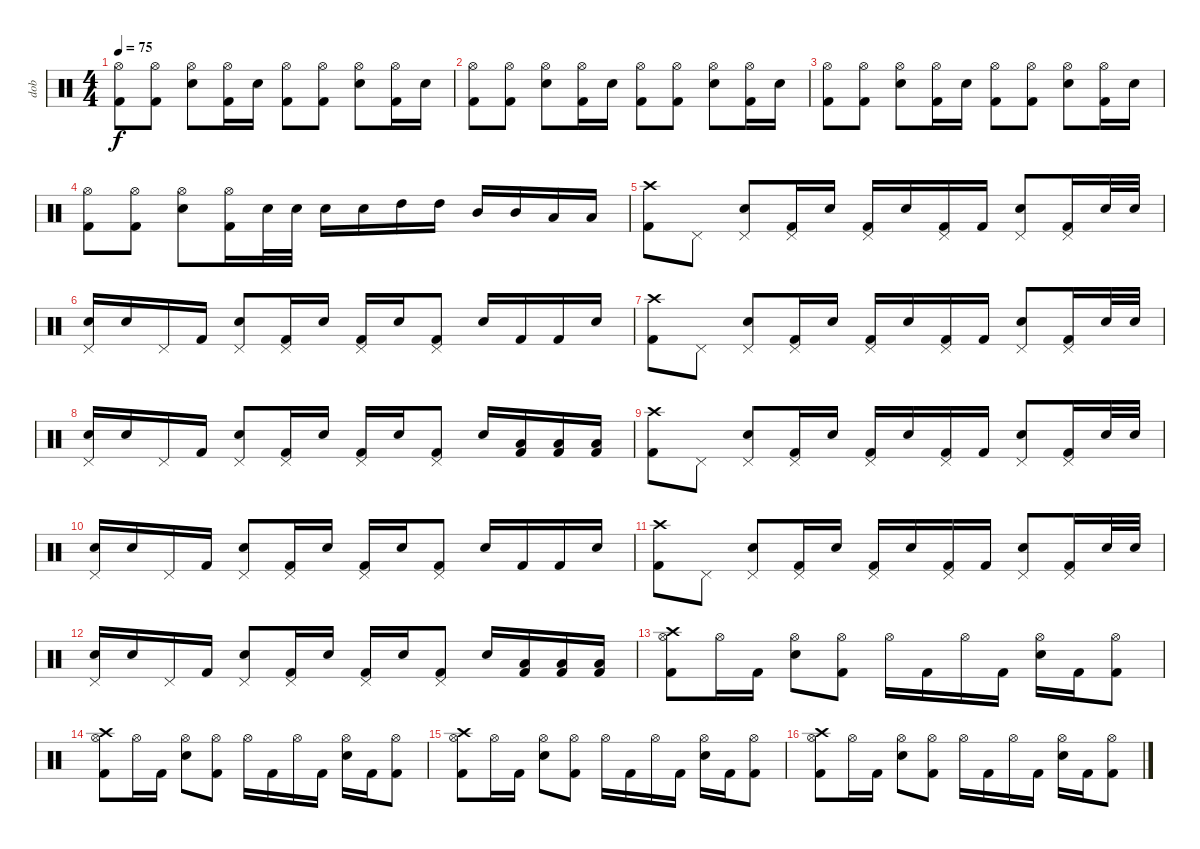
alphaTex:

\track ("dob" "dob") {instrument percussion}
\staff {score}
\articulation defaults
\ts (4 4)
\tempo 75
\clef neutral
\ks c
("Kick (hit) 2" "Hi-Hat (open)").8{dy f} ("Kick (hit) 2" "Hi-Hat (open)").8 ("Snare (hit) 2" "Hi-Hat (open)").8 ("Kick (hit) 2" "Hi-Hat (open)").16 "Snare (hit) 2".16 ("Kick (hit) 2" "Hi-Hat (open)").8 ("Kick (hit) 2" "Hi-Hat (open)").8 ("Snare (hit) 2" "Hi-Hat (open)").8 ("Kick (hit) 2" "Hi-Hat (open)").16 "Snare (hit) 2".16 |
("Kick (hit) 2" "Hi-Hat (open)").8 ("Kick (hit) 2" "Hi-Hat (open)").8 ("Snare (hit) 2" "Hi-Hat (open)").8 ("Kick (hit) 2" "Hi-Hat (open)").16 "Snare (hit) 2".16 ("Kick (hit) 2" "Hi-Hat (open)").8 ("Kick (hit) 2" "Hi-Hat (open)").8 ("Snare (hit) 2" "Hi-Hat (open)").8 ("Kick (hit) 2" "Hi-Hat (open)").16 "Snare (hit) 2".16 |
("Kick (hit) 2" "Hi-Hat (open)").8 ("Kick (hit) 2" "Hi-Hat (open)").8 ("Snare (hit) 2" "Hi-Hat (open)").8 ("Kick (hit) 2" "Hi-Hat (open)").16 "Snare (hit) 2".16 ("Kick (hit) 2" "Hi-Hat (open)").8 ("Kick (hit) 2" "Hi-Hat (open)").8 ("Snare (hit) 2" "Hi-Hat (open)").8 ("Kick (hit) 2" "Hi-Hat (open)").16 "Snare (hit) 2".16 |
("Kick (hit) 2" "Hi-Hat (open)").8 ("Kick (hit) 2" "Hi-Hat (open)").8 ("Snare (hit) 2" "Hi-Hat (open)").8 ("Kick (hit) 2" "Hi-Hat (open)").16 "Snare (hit) 2".32 "Snare (hit) 2".32 "Snare (hit) 2".16 "Snare (hit) 2".16 "High Tom (hit)".16 "High Tom (hit)".16 "Mid Tom (hit)".16 "Mid Tom (hit)".16 "Low Tom (hit)".16 "Low Tom (hit)".16 |
("Kick (hit) 2" "Crash high (hit)").8 "Pedal Hi-Hat (hit)".8 ("Snare (hit) 2" "Pedal Hi-Hat (hit)").8 ("Kick (hit) 2" "Pedal Hi-Hat (hit)").16 "Snare (hit) 2".16 ("Kick (hit) 2" "Pedal Hi-Hat (hit)").16 "Snare (hit) 2".16 ("Kick (hit) 2" "Pedal Hi-Hat (hit)").16 "Kick (hit) 2".16 ("Snare (hit) 2" "Pedal Hi-Hat (hit)").8 ("Kick (hit) 2" "Pedal Hi-Hat (hit)").16 "Snare (hit) 2".32 "Snare (hit) 2".32 |
("Snare (hit) 2" "Pedal Hi-Hat (hit)").16 "Snare (hit) 2".16 "Pedal Hi-Hat (hit)".16 "Kick (hit) 2".16 ("Snare (hit) 2" "Pedal Hi-Hat (hit)").8 ("Kick (hit) 2" "Pedal Hi-Hat (hit)").16 "Snare (hit) 2".16 ("Kick (hit) 2" "Pedal Hi-Hat (hit)").16 "Snare (hit) 2".16 ("Kick (hit) 2" "Pedal Hi-Hat (hit)").8 "Snare (hit) 2".16 "Kick (hit) 2".16 "Kick (hit) 2".16 "Snare (hit) 2".16 |
("Kick (hit) 2" "Crash high (hit)").8 "Pedal Hi-Hat (hit)".8 ("Snare (hit) 2" "Pedal Hi-Hat (hit)").8 ("Kick (hit) 2" "Pedal Hi-Hat (hit)").16 "Snare (hit) 2".16 ("Kick (hit) 2" "Pedal Hi-Hat (hit)").16 "Snare (hit) 2".16 ("Kick (hit) 2" "Pedal Hi-Hat (hit)").16 "Kick (hit) 2".16 ("Snare (hit) 2" "Pedal Hi-Hat (hit)").8 ("Kick (hit) 2" "Pedal Hi-Hat (hit)").16 "Snare (hit) 2".32 "Snare (hit) 2".32 |
("Snare (hit) 2" "Pedal Hi-Hat (hit)").16 "Snare (hit) 2".16 "Pedal Hi-Hat (hit)".16 "Kick (hit) 2".16 ("Snare (hit) 2" "Pedal Hi-Hat (hit)").8 ("Kick (hit) 2" "Pedal Hi-Hat (hit)").16 "Snare (hit) 2".16 ("Kick (hit) 2" "Pedal Hi-Hat (hit)").16 "Snare (hit) 2".16 ("Kick (hit) 2" "Pedal Hi-Hat (hit)").8 "Snare (hit) 2".16 ("Kick (hit) 2" "Low Tom (hit)").16 ("Kick (hit) 2" "Low Tom (hit)").16 ("Kick (hit) 2" "Low Tom (hit)").16 |
("Kick (hit) 2" "Crash high (hit)").8 "Pedal Hi-Hat (hit)".8 ("Snare (hit) 2" "Pedal Hi-Hat (hit)").8 ("Kick (hit) 2" "Pedal Hi-Hat (hit)").16 "Snare (hit) 2".16 ("Kick (hit) 2" "Pedal Hi-Hat (hit)").16 "Snare (hit) 2".16 ("Kick (hit) 2" "Pedal Hi-Hat (hit)").16 "Kick (hit) 2".16 ("Snare (hit) 2" "Pedal Hi-Hat (hit)").8 ("Kick (hit) 2" "Pedal Hi-Hat (hit)").16 "Snare (hit) 2".32 "Snare (hit) 2".32 |
("Snare (hit) 2" "Pedal Hi-Hat (hit)").16 "Snare (hit) 2".16 "Pedal Hi-Hat (hit)".16 "Kick (hit) 2".16 ("Snare (hit) 2" "Pedal Hi-Hat (hit)").8 ("Kick (hit) 2" "Pedal Hi-Hat (hit)").16 "Snare (hit) 2".16 ("Kick (hit) 2" "Pedal Hi-Hat (hit)").16 "Snare (hit) 2".16 ("Kick (hit) 2" "Pedal Hi-Hat (hit)").8 "Snare (hit) 2".16 "Kick (hit) 2".16 "Kick (hit) 2".16 "Snare (hit) 2".16 |
("Kick (hit) 2" "Crash high (hit)").8 "Pedal Hi-Hat (hit)".8 ("Snare (hit) 2" "Pedal Hi-Hat (hit)").8 ("Kick (hit) 2" "Pedal Hi-Hat (hit)").16 "Snare (hit) 2".16 ("Kick (hit) 2" "Pedal Hi-Hat (hit)").16 "Snare (hit) 2".16 ("Kick (hit) 2" "Pedal Hi-Hat (hit)").16 "Kick (hit) 2".16 ("Snare (hit) 2" "Pedal Hi-Hat (hit)").8 ("Kick (hit) 2" "Pedal Hi-Hat (hit)").16 "Snare (hit) 2".32 "Snare (hit) 2".32 |
("Snare (hit) 2" "Pedal Hi-Hat (hit)").16 "Snare (hit) 2".16 "Pedal Hi-Hat (hit)".16 "Kick (hit) 2".16 ("Snare (hit) 2" "Pedal Hi-Hat (hit)").8 ("Kick (hit) 2" "Pedal Hi-Hat (hit)").16 "Snare (hit) 2".16 ("Kick (hit) 2" "Pedal Hi-Hat (hit)").16 "Snare (hit) 2".16 ("Kick (hit) 2" "Pedal Hi-Hat (hit)").8 "Snare (hit) 2".16 ("Kick (hit) 2" "Low Tom (hit)").16 ("Kick (hit) 2" "Low Tom (hit)").16 ("Kick (hit) 2" "Low Tom (hit)").16 |
("Kick (hit) 2" "Hi-Hat (open)" "Crash high (hit)").8 "Hi-Hat (open)".16 "Kick (hit) 2".16 ("Snare (hit) 2" "Hi-Hat (open)").8 ("Kick (hit) 2" "Hi-Hat (open)").8 "Hi-Hat (open)".16 "Kick (hit) 2".16 "Hi-Hat (open)".16 "Kick (hit) 2".16 ("Snare (hit) 2" "Hi-Hat (open)").16 "Kick (hit) 2".16 ("Kick (hit) 2" "Hi-Hat (open)").8 |
("Kick (hit) 2" "Hi-Hat (open)" "Crash high (hit)").8 "Hi-Hat (open)".16 "Kick (hit) 2".16 ("Snare (hit) 2" "Hi-Hat (open)").8 ("Kick (hit) 2" "Hi-Hat (open)").8 "Hi-Hat (open)".16 "Kick (hit) 2".16 "Hi-Hat (open)".16 "Kick (hit) 2".16 ("Snare (hit) 2" "Hi-Hat (open)").16 "Kick (hit) 2".16 ("Kick (hit) 2" "Hi-Hat (open)").8 |
("Kick (hit) 2" "Hi-Hat (open)" "Crash high (hit)").8 "Hi-Hat (open)".16 "Kick (hit) 2".16 ("Snare (hit) 2" "Hi-Hat (open)").8 ("Kick (hit) 2" "Hi-Hat (open)").8 "Hi-Hat (open)".16 "Kick (hit) 2".16 "Hi-Hat (open)".16 "Kick (hit) 2".16 ("Snare (hit) 2" "Hi-Hat (open)").16 "Kick (hit) 2".16 ("Kick (hit) 2" "Hi-Hat (open)").8 |
("Kick (hit) 2" "Hi-Hat (open)" "Crash high (hit)").8 "Hi-Hat (open)".16 "Kick (hit) 2".16 ("Snare (hit) 2" "Hi-Hat (open)").8 ("Kick (hit) 2" "Hi-Hat (open)").8 "Hi-Hat (open)".16 "Kick (hit) 2".16 "Hi-Hat (open)".16 "Kick (hit) 2".16 ("Snare (hit) 2" "Hi-Hat (open)").16 "Kick (hit) 2".16 ("Kick (hit) 2" "Hi-Hat (open)").8
